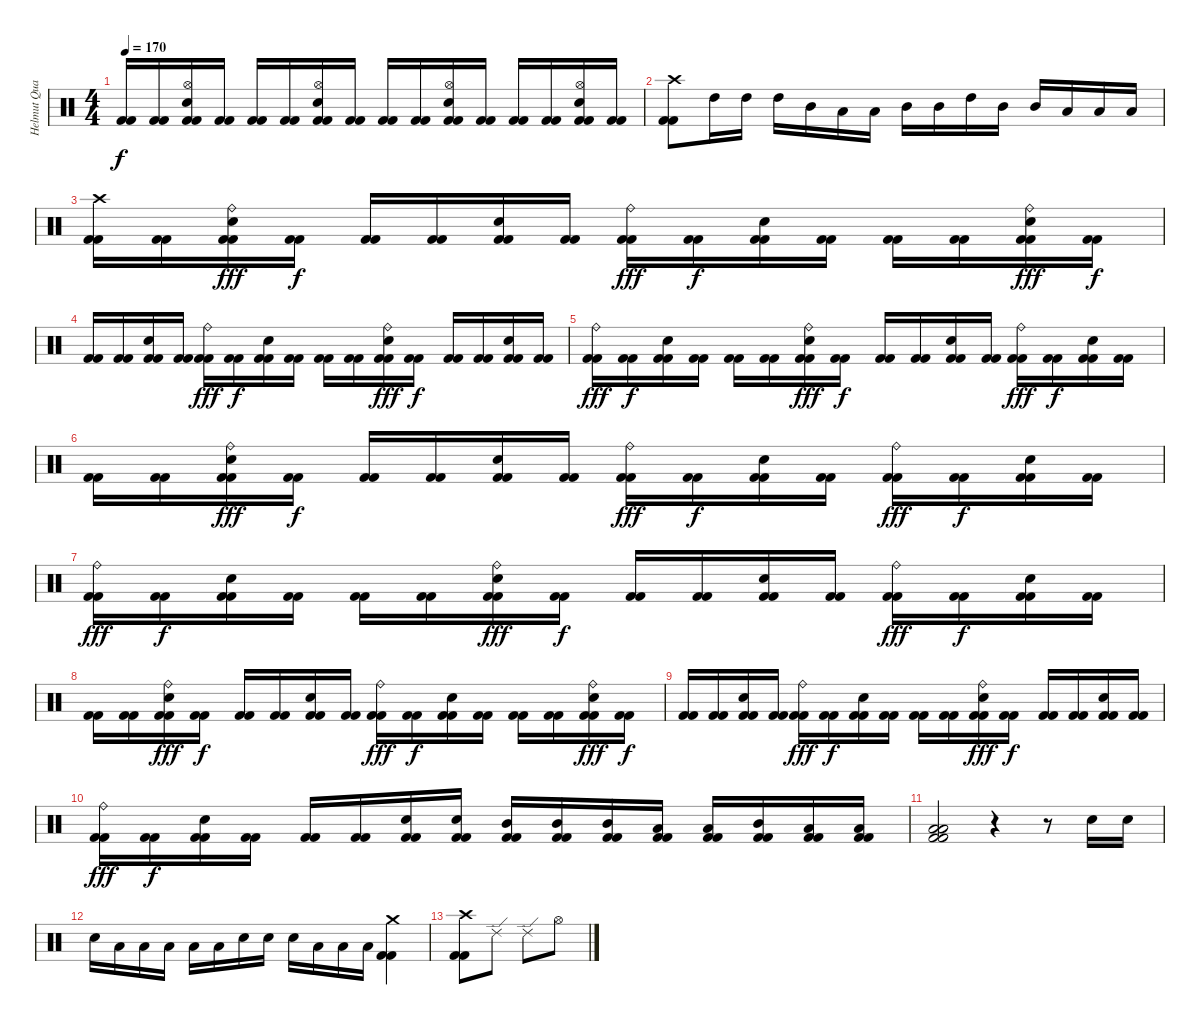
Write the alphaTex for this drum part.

\track ("Helmut Quacken" "Helmut Qua") {instrument percussion}
\staff {score}
\articulation defaults
\ts (4 4)
\tempo 170
\clef neutral
\ks c
("Kick (hit) 2" "Kick (hit) 2").16{dy f} ("Kick (hit) 2" "Kick (hit) 2").16 ("Hi-Hat (open)" "Electric Snare (hit)" "Kick (hit) 2" "Kick (hit) 2").16 ("Kick (hit) 2" "Kick (hit) 2").16 ("Kick (hit) 2" "Kick (hit) 2").16 ("Kick (hit) 2" "Kick (hit) 2").16 ("Hi-Hat (open)" "Electric Snare (hit)" "Kick (hit) 2" "Kick (hit) 2").16 ("Kick (hit) 2" "Kick (hit) 2").16 ("Kick (hit) 2" "Kick (hit) 2").16 ("Kick (hit) 2" "Kick (hit) 2").16 ("Hi-Hat (open)" "Electric Snare (hit)" "Kick (hit) 2" "Kick (hit) 2").16 ("Kick (hit) 2" "Kick (hit) 2").16 ("Kick (hit) 2" "Kick (hit) 2").16 ("Kick (hit) 2" "Kick (hit) 2").16 ("Hi-Hat (open)" "Electric Snare (hit)" "Kick (hit) 2" "Kick (hit) 2").16 ("Kick (hit) 2" "Kick (hit) 2").16 |
("Crash high (hit)" "Kick (hit) 2" "Kick (hit) 2").8 "High Tom (hit)".16 "High Tom (hit)".16 "High Tom (hit)".16 "Mid Tom (hit)".16 "Low Tom (hit)".16 "Low Tom (hit)".16 "Mid Tom (hit)".16 "Mid Tom (hit)".16 "High Tom (hit)".16 "Mid Tom (hit)".16 "Mid Tom (hit)".16 "Low Tom (hit)".16 "Low Tom (hit)".16 "Low Tom (hit)".16 |
("Crash high (hit)" "Kick (hit) 2" "Kick (hit) 2").16 ("Kick (hit) 2" "Kick (hit) 2").16 ("Ride (bell)" "Electric Snare (hit)" "Kick (hit) 2" "Kick (hit) 2").16{dy fff} ("Kick (hit) 2" "Kick (hit) 2").16{dy f} ("Kick (hit) 2" "Kick (hit) 2").16 ("Kick (hit) 2" "Kick (hit) 2").16 ("Electric Snare (hit)" "Kick (hit) 2" "Kick (hit) 2").16 ("Kick (hit) 2" "Kick (hit) 2").16 ("Ride (bell)" "Kick (hit) 2" "Kick (hit) 2").16{dy fff} ("Kick (hit) 2" "Kick (hit) 2").16{dy f} ("Electric Snare (hit)" "Kick (hit) 2" "Kick (hit) 2").16 ("Kick (hit) 2" "Kick (hit) 2").16 ("Kick (hit) 2" "Kick (hit) 2").16 ("Kick (hit) 2" "Kick (hit) 2").16 ("Ride (bell)" "Electric Snare (hit)" "Kick (hit) 2" "Kick (hit) 2").16{dy fff} ("Kick (hit) 2" "Kick (hit) 2").16{dy f} |
("Kick (hit) 2" "Kick (hit) 2").16 ("Kick (hit) 2" "Kick (hit) 2").16 ("Electric Snare (hit)" "Kick (hit) 2" "Kick (hit) 2").16 ("Kick (hit) 2" "Kick (hit) 2").16 ("Ride (bell)" "Kick (hit) 2" "Kick (hit) 2").16{dy fff} ("Kick (hit) 2" "Kick (hit) 2").16{dy f} ("Electric Snare (hit)" "Kick (hit) 2" "Kick (hit) 2").16 ("Kick (hit) 2" "Kick (hit) 2").16 ("Kick (hit) 2" "Kick (hit) 2").16 ("Kick (hit) 2" "Kick (hit) 2").16 ("Ride (bell)" "Electric Snare (hit)" "Kick (hit) 2" "Kick (hit) 2").16{dy fff} ("Kick (hit) 2" "Kick (hit) 2").16{dy f} ("Kick (hit) 2" "Kick (hit) 2").16 ("Kick (hit) 2" "Kick (hit) 2").16 ("Electric Snare (hit)" "Kick (hit) 2" "Kick (hit) 2").16 ("Kick (hit) 2" "Kick (hit) 2").16 |
("Ride (bell)" "Kick (hit) 2" "Kick (hit) 2").16{dy fff} ("Kick (hit) 2" "Kick (hit) 2").16{dy f} ("Electric Snare (hit)" "Kick (hit) 2" "Kick (hit) 2").16 ("Kick (hit) 2" "Kick (hit) 2").16 ("Kick (hit) 2" "Kick (hit) 2").16 ("Kick (hit) 2" "Kick (hit) 2").16 ("Ride (bell)" "Electric Snare (hit)" "Kick (hit) 2" "Kick (hit) 2").16{dy fff} ("Kick (hit) 2" "Kick (hit) 2").16{dy f} ("Kick (hit) 2" "Kick (hit) 2").16 ("Kick (hit) 2" "Kick (hit) 2").16 ("Electric Snare (hit)" "Kick (hit) 2" "Kick (hit) 2").16 ("Kick (hit) 2" "Kick (hit) 2").16 ("Ride (bell)" "Kick (hit) 2" "Kick (hit) 2").16{dy fff} ("Kick (hit) 2" "Kick (hit) 2").16{dy f} ("Electric Snare (hit)" "Kick (hit) 2" "Kick (hit) 2").16 ("Kick (hit) 2" "Kick (hit) 2").16 |
("Kick (hit) 2" "Kick (hit) 2").16 ("Kick (hit) 2" "Kick (hit) 2").16 ("Ride (bell)" "Electric Snare (hit)" "Kick (hit) 2" "Kick (hit) 2").16{dy fff} ("Kick (hit) 2" "Kick (hit) 2").16{dy f} ("Kick (hit) 2" "Kick (hit) 2").16 ("Kick (hit) 2" "Kick (hit) 2").16 ("Electric Snare (hit)" "Kick (hit) 2" "Kick (hit) 2").16 ("Kick (hit) 2" "Kick (hit) 2").16 ("Ride (bell)" "Kick (hit) 2" "Kick (hit) 2").16{dy fff} ("Kick (hit) 2" "Kick (hit) 2").16{dy f} ("Electric Snare (hit)" "Kick (hit) 2" "Kick (hit) 2").16 ("Kick (hit) 2" "Kick (hit) 2").16 ("Ride (bell)" "Kick (hit) 2" "Kick (hit) 2").16{dy fff} ("Kick (hit) 2" "Kick (hit) 2").16{dy f} ("Electric Snare (hit)" "Kick (hit) 2" "Kick (hit) 2").16 ("Kick (hit) 2" "Kick (hit) 2").16 |
("Ride (bell)" "Kick (hit) 2" "Kick (hit) 2").16{dy fff} ("Kick (hit) 2" "Kick (hit) 2").16{dy f} ("Electric Snare (hit)" "Kick (hit) 2" "Kick (hit) 2").16 ("Kick (hit) 2" "Kick (hit) 2").16 ("Kick (hit) 2" "Kick (hit) 2").16 ("Kick (hit) 2" "Kick (hit) 2").16 ("Ride (bell)" "Electric Snare (hit)" "Kick (hit) 2" "Kick (hit) 2").16{dy fff} ("Kick (hit) 2" "Kick (hit) 2").16{dy f} ("Kick (hit) 2" "Kick (hit) 2").16 ("Kick (hit) 2" "Kick (hit) 2").16 ("Electric Snare (hit)" "Kick (hit) 2" "Kick (hit) 2").16 ("Kick (hit) 2" "Kick (hit) 2").16 ("Ride (bell)" "Kick (hit) 2" "Kick (hit) 2").16{dy fff} ("Kick (hit) 2" "Kick (hit) 2").16{dy f} ("Electric Snare (hit)" "Kick (hit) 2" "Kick (hit) 2").16 ("Kick (hit) 2" "Kick (hit) 2").16 |
("Kick (hit) 2" "Kick (hit) 2").16 ("Kick (hit) 2" "Kick (hit) 2").16 ("Ride (bell)" "Electric Snare (hit)" "Kick (hit) 2" "Kick (hit) 2").16{dy fff} ("Kick (hit) 2" "Kick (hit) 2").16{dy f} ("Kick (hit) 2" "Kick (hit) 2").16 ("Kick (hit) 2" "Kick (hit) 2").16 ("Electric Snare (hit)" "Kick (hit) 2" "Kick (hit) 2").16 ("Kick (hit) 2" "Kick (hit) 2").16 ("Ride (bell)" "Kick (hit) 2" "Kick (hit) 2").16{dy fff} ("Kick (hit) 2" "Kick (hit) 2").16{dy f} ("Electric Snare (hit)" "Kick (hit) 2" "Kick (hit) 2").16 ("Kick (hit) 2" "Kick (hit) 2").16 ("Kick (hit) 2" "Kick (hit) 2").16 ("Kick (hit) 2" "Kick (hit) 2").16 ("Ride (bell)" "Electric Snare (hit)" "Kick (hit) 2" "Kick (hit) 2").16{dy fff} ("Kick (hit) 2" "Kick (hit) 2").16{dy f} |
("Kick (hit) 2" "Kick (hit) 2").16 ("Kick (hit) 2" "Kick (hit) 2").16 ("Electric Snare (hit)" "Kick (hit) 2" "Kick (hit) 2").16 ("Kick (hit) 2" "Kick (hit) 2").16 ("Ride (bell)" "Kick (hit) 2" "Kick (hit) 2").16{dy fff} ("Kick (hit) 2" "Kick (hit) 2").16{dy f} ("Electric Snare (hit)" "Kick (hit) 2" "Kick (hit) 2").16 ("Kick (hit) 2" "Kick (hit) 2").16 ("Kick (hit) 2" "Kick (hit) 2").16 ("Kick (hit) 2" "Kick (hit) 2").16 ("Ride (bell)" "Electric Snare (hit)" "Kick (hit) 2" "Kick (hit) 2").16{dy fff} ("Kick (hit) 2" "Kick (hit) 2").16{dy f} ("Kick (hit) 2" "Kick (hit) 2").16 ("Kick (hit) 2" "Kick (hit) 2").16 ("Electric Snare (hit)" "Kick (hit) 2" "Kick (hit) 2").16 ("Kick (hit) 2" "Kick (hit) 2").16 |
("Ride (bell)" "Kick (hit) 2" "Kick (hit) 2").16{dy fff} ("Kick (hit) 2" "Kick (hit) 2").16{dy f} ("Electric Snare (hit)" "Kick (hit) 2" "Kick (hit) 2").16 ("Kick (hit) 2" "Kick (hit) 2").16 ("Kick (hit) 2" "Kick (hit) 2").16 ("Kick (hit) 2" "Kick (hit) 2").16 ("Electric Snare (hit)" "Kick (hit) 2" "Kick (hit) 2").16 ("Electric Snare (hit)" "Kick (hit) 2" "Kick (hit) 2").16 ("Mid Tom (hit)" "Kick (hit) 2" "Kick (hit) 2").16 ("Mid Tom (hit)" "Kick (hit) 2" "Kick (hit) 2").16 ("Mid Tom (hit)" "Kick (hit) 2" "Kick (hit) 2").16 ("Low Tom (hit)" "Kick (hit) 2" "Kick (hit) 2").16 ("Low Tom (hit)" "Kick (hit) 2" "Kick (hit) 2").16 ("Mid Tom (hit)" "Kick (hit) 2" "Kick (hit) 2").16 ("Low Tom (hit)" "Kick (hit) 2" "Kick (hit) 2").16 ("Low Tom (hit)" "Kick (hit) 2" "Kick (hit) 2").16 |
("Low Tom (hit)" "Low Tom (hit)" "Kick (hit) 2" "Kick (hit) 2").2 r.4 r.8 "Electric Snare (hit)".16 "Electric Snare (hit)".16 |
"Electric Snare (hit)".16 "Low Tom (hit)".16 "Low Tom (hit)".16 "Low Tom (hit)".16 "Low Tom (hit)".16 "Low Tom (hit)".16 "Electric Snare (hit)".16 "Electric Snare (hit)".16 "Electric Snare (hit)".16 "Low Tom (hit)".16 "Low Tom (hit)".16 "Low Tom (hit)".16 ("Crash medium (hit)" "Kick (hit) 2" "Kick (hit) 2").4 |
("Crash high (hit)" "Kick (hit) 2" "Kick (hit) 2").8 "Ride (edge) 2".8 "Ride (edge) 2".8 "Hi-Hat (open)".8
